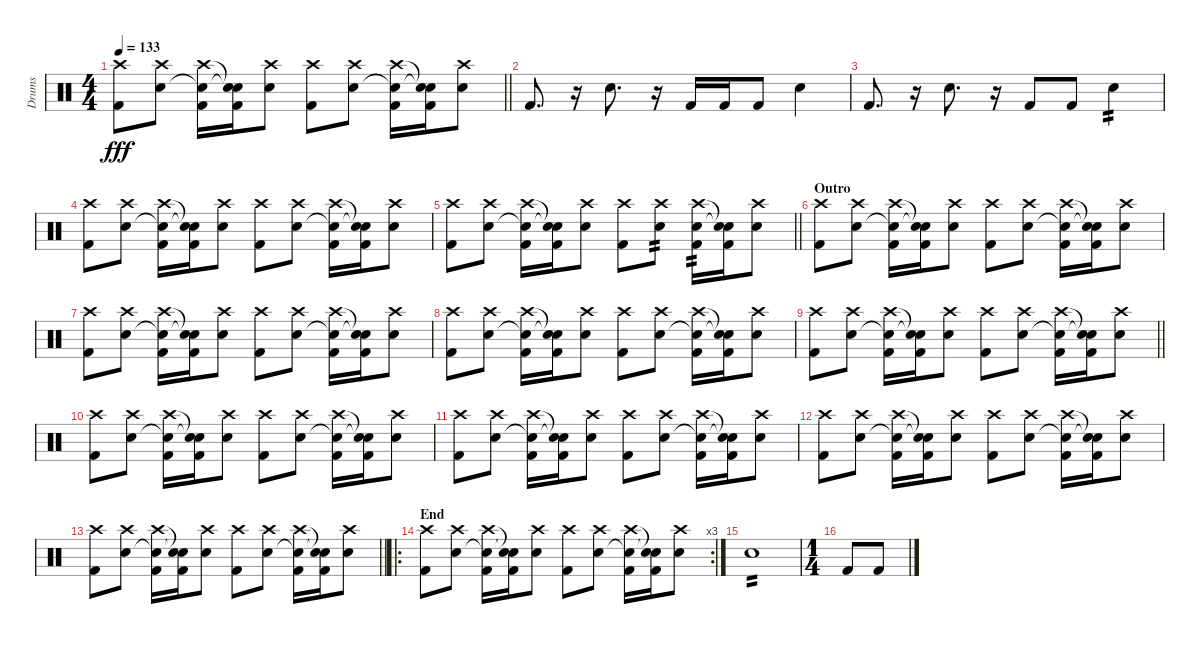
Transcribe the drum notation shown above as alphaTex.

\track ("Drums" "Drums") {instrument percussion}
\staff
\articulation defaults
\ts (4 4)
\tempo 133
\clef neutral
\barLineRight lightlight
\ks c
("Crash high (hit)" "Kick (hit) 2").8{dy fff} ("Crash high (hit)" "Electric Snare (hit)").8 ("Crash high (hit)" "Electric Snare (hit)"{t} "Kick (hit) 2").16 ("Snare (hit)"{t} "Electric Snare (hit)"{t} "Kick (hit) 2").16 ("Crash high (hit)" "Electric Snare (hit)").8 ("Crash high (hit)" "Kick (hit) 2").8 ("Crash high (hit)" "Electric Snare (hit)").8 ("Crash high (hit)" "Electric Snare (hit)"{t} "Kick (hit) 2").16 ("Snare (hit)"{t} "Electric Snare (hit)"{t} "Kick (hit) 2").16 ("Crash high (hit)" "Electric Snare (hit)").8 |
"Kick (hit) 2".8{d} r.16 "Electric Snare (hit)".8{d} r.16 "Kick (hit) 2".16 "Kick (hit) 2".16 "Kick (hit) 2".8 "Electric Snare (hit)".4 |
"Kick (hit) 2".8{d} r.16 "Electric Snare (hit)".8{d} r.16 "Kick (hit) 2".8 "Kick (hit) 2".8 "Electric Snare (hit)".4{tp 2} |
("Crash high (hit)" "Kick (hit) 2").8 ("Crash high (hit)" "Electric Snare (hit)").8 ("Crash high (hit)" "Electric Snare (hit)"{t} "Kick (hit) 2").16 ("Snare (hit)"{t} "Electric Snare (hit)"{t} "Kick (hit) 2").16 ("Crash high (hit)" "Electric Snare (hit)").8 ("Crash high (hit)" "Kick (hit) 2").8 ("Crash high (hit)" "Electric Snare (hit)").8 ("Crash high (hit)" "Electric Snare (hit)"{t} "Kick (hit) 2").16 ("Snare (hit)"{t} "Electric Snare (hit)"{t} "Kick (hit) 2").16 ("Crash high (hit)" "Electric Snare (hit)").8 |
\barLineRight lightlight
("Crash high (hit)" "Kick (hit) 2").8 ("Crash high (hit)" "Electric Snare (hit)").8 ("Crash high (hit)" "Electric Snare (hit)"{t} "Kick (hit) 2").16 ("Snare (hit)"{t} "Electric Snare (hit)"{t} "Kick (hit) 2").16 ("Crash high (hit)" "Electric Snare (hit)").8 ("Crash high (hit)" "Kick (hit) 2").8 ("Crash high (hit)" "Electric Snare (hit)").8{tp 2} ("Crash high (hit)" "Electric Snare (hit)" "Kick (hit) 2").16{tp 2} ("Snare (hit)"{t} "Electric Snare (hit)"{t} "Kick (hit) 2").16 ("Crash high (hit)" "Electric Snare (hit)").8 |
\section ("" "Outro")
("Crash high (hit)" "Kick (hit) 2").8 ("Crash high (hit)" "Electric Snare (hit)").8 ("Crash high (hit)" "Electric Snare (hit)"{t} "Kick (hit) 2").16 ("Snare (hit)"{t} "Electric Snare (hit)"{t} "Kick (hit) 2").16 ("Crash high (hit)" "Electric Snare (hit)").8 ("Crash high (hit)" "Kick (hit) 2").8 ("Crash high (hit)" "Electric Snare (hit)").8 ("Crash high (hit)" "Electric Snare (hit)"{t} "Kick (hit) 2").16 ("Snare (hit)"{t} "Electric Snare (hit)"{t} "Kick (hit) 2").16 ("Crash high (hit)" "Electric Snare (hit)").8 |
("Crash high (hit)" "Kick (hit) 2").8 ("Crash high (hit)" "Electric Snare (hit)").8 ("Crash high (hit)" "Electric Snare (hit)"{t} "Kick (hit) 2").16 ("Snare (hit)"{t} "Electric Snare (hit)"{t} "Kick (hit) 2").16 ("Crash high (hit)" "Electric Snare (hit)").8 ("Crash high (hit)" "Kick (hit) 2").8 ("Crash high (hit)" "Electric Snare (hit)").8 ("Crash high (hit)" "Electric Snare (hit)"{t} "Kick (hit) 2").16 ("Snare (hit)"{t} "Electric Snare (hit)"{t} "Kick (hit) 2").16 ("Crash high (hit)" "Electric Snare (hit)").8 |
("Crash high (hit)" "Kick (hit) 2").8 ("Crash high (hit)" "Electric Snare (hit)").8 ("Crash high (hit)" "Electric Snare (hit)"{t} "Kick (hit) 2").16 ("Snare (hit)"{t} "Electric Snare (hit)"{t} "Kick (hit) 2").16 ("Crash high (hit)" "Electric Snare (hit)").8 ("Crash high (hit)" "Kick (hit) 2").8 ("Crash high (hit)" "Electric Snare (hit)").8 ("Crash high (hit)" "Electric Snare (hit)"{t} "Kick (hit) 2").16 ("Snare (hit)"{t} "Electric Snare (hit)"{t} "Kick (hit) 2").16 ("Crash high (hit)" "Electric Snare (hit)").8 |
\barLineRight lightlight
("Crash high (hit)" "Kick (hit) 2").8 ("Crash high (hit)" "Electric Snare (hit)").8 ("Crash high (hit)" "Electric Snare (hit)"{t} "Kick (hit) 2").16 ("Snare (hit)"{t} "Electric Snare (hit)"{t} "Kick (hit) 2").16 ("Crash high (hit)" "Electric Snare (hit)").8 ("Crash high (hit)" "Kick (hit) 2").8 ("Crash high (hit)" "Electric Snare (hit)").8 ("Crash high (hit)" "Electric Snare (hit)"{t} "Kick (hit) 2").16 ("Snare (hit)"{t} "Electric Snare (hit)"{t} "Kick (hit) 2").16 ("Crash high (hit)" "Electric Snare (hit)").8 |
("Crash high (hit)" "Kick (hit) 2").8 ("Crash high (hit)" "Electric Snare (hit)").8 ("Crash high (hit)" "Electric Snare (hit)"{t} "Kick (hit) 2").16 ("Snare (hit)"{t} "Electric Snare (hit)"{t} "Kick (hit) 2").16 ("Crash high (hit)" "Electric Snare (hit)").8 ("Crash high (hit)" "Kick (hit) 2").8 ("Crash high (hit)" "Electric Snare (hit)").8 ("Crash high (hit)" "Electric Snare (hit)"{t} "Kick (hit) 2").16 ("Snare (hit)"{t} "Electric Snare (hit)"{t} "Kick (hit) 2").16 ("Crash high (hit)" "Electric Snare (hit)").8 |
("Crash high (hit)" "Kick (hit) 2").8 ("Crash high (hit)" "Electric Snare (hit)").8 ("Crash high (hit)" "Electric Snare (hit)"{t} "Kick (hit) 2").16 ("Snare (hit)"{t} "Electric Snare (hit)"{t} "Kick (hit) 2").16 ("Crash high (hit)" "Electric Snare (hit)").8 ("Crash high (hit)" "Kick (hit) 2").8 ("Crash high (hit)" "Electric Snare (hit)").8 ("Crash high (hit)" "Electric Snare (hit)"{t} "Kick (hit) 2").16 ("Snare (hit)"{t} "Electric Snare (hit)"{t} "Kick (hit) 2").16 ("Crash high (hit)" "Electric Snare (hit)").8 |
("Crash high (hit)" "Kick (hit) 2").8 ("Crash high (hit)" "Electric Snare (hit)").8 ("Crash high (hit)" "Electric Snare (hit)"{t} "Kick (hit) 2").16 ("Snare (hit)"{t} "Electric Snare (hit)"{t} "Kick (hit) 2").16 ("Crash high (hit)" "Electric Snare (hit)").8 ("Crash high (hit)" "Kick (hit) 2").8 ("Crash high (hit)" "Electric Snare (hit)").8 ("Crash high (hit)" "Electric Snare (hit)"{t} "Kick (hit) 2").16 ("Snare (hit)"{t} "Electric Snare (hit)"{t} "Kick (hit) 2").16 ("Crash high (hit)" "Electric Snare (hit)").8 |
\barLineRight lightlight
("Crash high (hit)" "Kick (hit) 2").8 ("Crash high (hit)" "Electric Snare (hit)").8 ("Crash high (hit)" "Electric Snare (hit)"{t} "Kick (hit) 2").16 ("Snare (hit)"{t} "Electric Snare (hit)"{t} "Kick (hit) 2").16 ("Crash high (hit)" "Electric Snare (hit)").8 ("Crash high (hit)" "Kick (hit) 2").8 ("Crash high (hit)" "Electric Snare (hit)").8 ("Crash high (hit)" "Electric Snare (hit)"{t} "Kick (hit) 2").16 ("Snare (hit)"{t} "Electric Snare (hit)"{t} "Kick (hit) 2").16 ("Crash high (hit)" "Electric Snare (hit)").8 |
\ro
\rc 3
\section ("" "End")
("Crash high (hit)" "Kick (hit) 2").8 ("Crash high (hit)" "Electric Snare (hit)").8 ("Crash high (hit)" "Electric Snare (hit)"{t} "Kick (hit) 2").16 ("Snare (hit)"{t} "Electric Snare (hit)"{t} "Kick (hit) 2").16 ("Crash high (hit)" "Electric Snare (hit)").8 ("Crash high (hit)" "Kick (hit) 2").8 ("Crash high (hit)" "Electric Snare (hit)").8 ("Crash high (hit)" "Electric Snare (hit)"{t} "Kick (hit) 2").16 ("Snare (hit)"{t} "Electric Snare (hit)"{t} "Kick (hit) 2").16 ("Crash high (hit)" "Electric Snare (hit)").8 |
"Electric Snare (hit)".1{tp 2} |
\ts (1 4)
"Kick (hit) 2".8 "Kick (hit) 2".8
